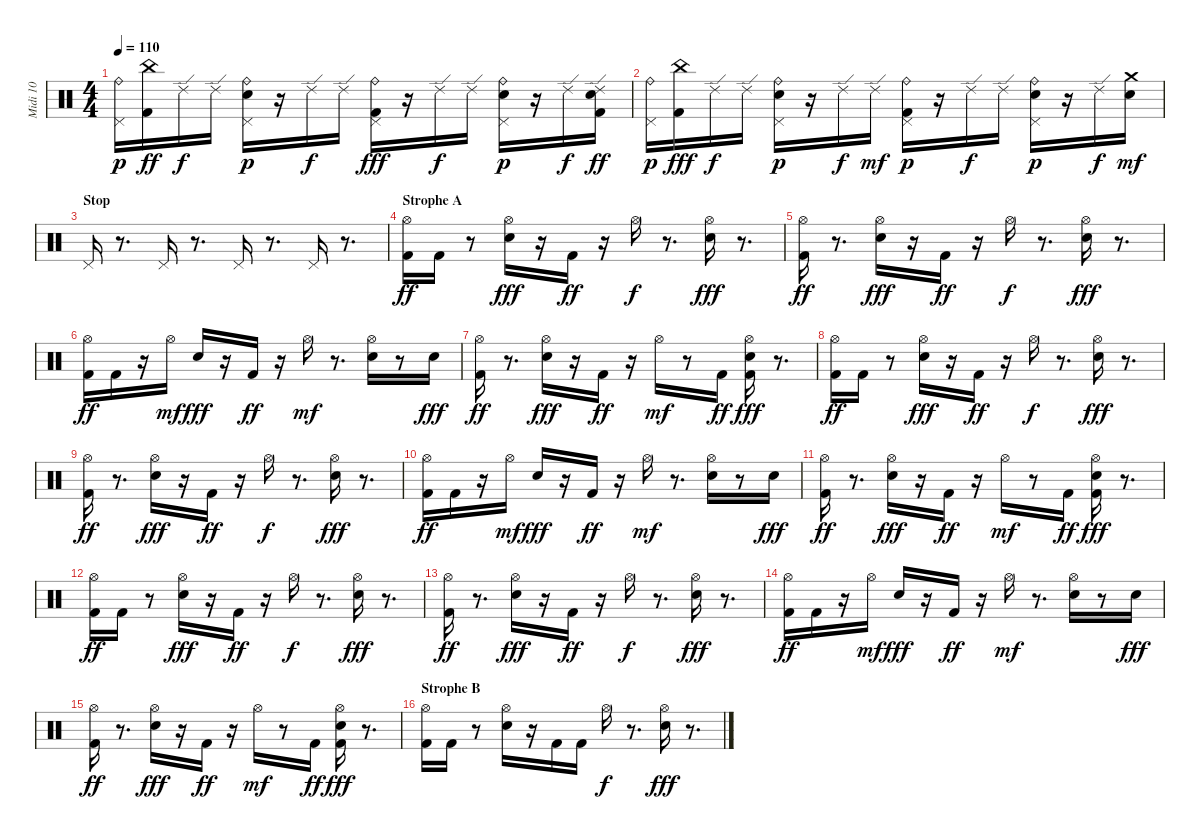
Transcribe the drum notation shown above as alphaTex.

\track ("Midi 10" "Midi 10") {instrument percussion}
\staff {score}
\articulation defaults
\ts (4 4)
\tempo 110
\clef neutral
\ks c
("Ride (bell)" "Pedal Hi-Hat (hit)").16{dy p} ("Kick (hit) 2" "China (hit)").16{dy ff} "Ride (edge) 2".16{dy f} "Ride (edge) 2".16 ("Ride (bell)" "Snare (hit) 2" "Pedal Hi-Hat (hit)").16{dy p} r.16 "Ride (edge) 2".16{dy f} "Ride (edge) 2".16 ("Ride (bell)" "Pedal Hi-Hat (hit)" "Kick (hit) 2").16{dy fff} r.16 "Ride (edge) 2".16{dy f} "Ride (edge) 2".16 ("Ride (bell)" "Snare (hit) 2" "Pedal Hi-Hat (hit)").16{dy p} r.16 "Ride (edge) 2".16{dy f} ("Ride (edge) 2" "Kick (hit) 2" "Snare (hit) 2").16{dy ff} |
("Ride (bell)" "Pedal Hi-Hat (hit)").16{dy p} ("China (hit)" "Kick (hit) 2").16{dy fff} "Ride (edge) 2".16{dy f} "Ride (edge) 2".16 ("Ride (bell)" "Snare (hit) 2" "Pedal Hi-Hat (hit)").16{dy p} r.16 "Ride (edge) 2".16{dy f} "Ride (edge) 2".16{dy mf} ("Ride (bell)" "Kick (hit) 2" "Pedal Hi-Hat (hit)").16{dy p} r.16 "Ride (edge) 2".16{dy f} "Ride (edge) 2".16 ("Ride (bell)" "Snare (hit) 2" "Pedal Hi-Hat (hit)").16{dy p} r.16 "Ride (edge) 2".16{dy f} ("Crash medium (hit)" "Snare (hit) 2").16{dy mf} |
\section ("" "Stop")
"Pedal Hi-Hat (hit)".16 r.8{d} "Pedal Hi-Hat (hit)".16 r.8{d} "Pedal Hi-Hat (hit)".16 r.8{d} "Pedal Hi-Hat (hit)".16 r.8{d} |
\section ("" "Strophe A")
("Kick (hit) 2" "Hi-Hat (open)").16{dy ff} "Kick (hit) 2".16 r.8 ("Snare (hit) 2" "Hi-Hat (open)").16{dy fff} r.16 "Kick (hit) 2".16{dy ff} r.16 "Hi-Hat (open)".16{dy f} r.8{d} ("Snare (hit) 2" "Hi-Hat (open)").16{dy fff} r.8{d} |
("Hi-Hat (open)" "Kick (hit) 2").16{dy ff} r.8{d} ("Snare (hit) 2" "Hi-Hat (open)").16{dy fff} r.16 "Kick (hit) 2".16{dy ff} r.16 "Hi-Hat (open)".16{dy f} r.8{d} ("Snare (hit) 2" "Hi-Hat (open)").16{dy fff} r.8{d} |
("Hi-Hat (open)" "Kick (hit) 2").16{dy ff} "Kick (hit) 2".16 r.16 "Hi-Hat (open)".16{dy mf} "Snare (hit) 2".16{dy fff} r.16 "Kick (hit) 2".16{dy ff} r.16 "Hi-Hat (open)".16{dy mf} r.8{d} ("Snare (hit) 2" "Hi-Hat (open)").16 r.8 "Snare (hit) 2".16{dy fff} |
("Hi-Hat (open)" "Kick (hit) 2").16{dy ff} r.8{d} ("Snare (hit) 2" "Hi-Hat (open)").16{dy fff} r.16 "Kick (hit) 2".16{dy ff} r.16 "Hi-Hat (open)".16{dy mf} r.8 "Kick (hit) 2".16{dy ff} ("Hi-Hat (open)" "Kick (hit) 2" "Snare (hit) 2").16{dy fff} r.8{d} |
("Kick (hit) 2" "Hi-Hat (open)").16{dy ff} "Kick (hit) 2".16 r.8 ("Snare (hit) 2" "Hi-Hat (open)").16{dy fff} r.16 "Kick (hit) 2".16{dy ff} r.16 "Hi-Hat (open)".16{dy f} r.8{d} ("Snare (hit) 2" "Hi-Hat (open)").16{dy fff} r.8{d} |
("Hi-Hat (open)" "Kick (hit) 2").16{dy ff} r.8{d} ("Snare (hit) 2" "Hi-Hat (open)").16{dy fff} r.16 "Kick (hit) 2".16{dy ff} r.16 "Hi-Hat (open)".16{dy f} r.8{d} ("Snare (hit) 2" "Hi-Hat (open)").16{dy fff} r.8{d} |
("Hi-Hat (open)" "Kick (hit) 2").16{dy ff} "Kick (hit) 2".16 r.16 "Hi-Hat (open)".16{dy mf} "Snare (hit) 2".16{dy fff} r.16 "Kick (hit) 2".16{dy ff} r.16 "Hi-Hat (open)".16{dy mf} r.8{d} ("Snare (hit) 2" "Hi-Hat (open)").16 r.8 "Snare (hit) 2".16{dy fff} |
("Hi-Hat (open)" "Kick (hit) 2").16{dy ff} r.8{d} ("Snare (hit) 2" "Hi-Hat (open)").16{dy fff} r.16 "Kick (hit) 2".16{dy ff} r.16 "Hi-Hat (open)".16{dy mf} r.8 "Kick (hit) 2".16{dy ff} ("Hi-Hat (open)" "Kick (hit) 2" "Snare (hit) 2").16{dy fff} r.8{d} |
("Kick (hit) 2" "Hi-Hat (open)").16{dy ff} "Kick (hit) 2".16 r.8 ("Snare (hit) 2" "Hi-Hat (open)").16{dy fff} r.16 "Kick (hit) 2".16{dy ff} r.16 "Hi-Hat (open)".16{dy f} r.8{d} ("Snare (hit) 2" "Hi-Hat (open)").16{dy fff} r.8{d} |
("Hi-Hat (open)" "Kick (hit) 2").16{dy ff} r.8{d} ("Snare (hit) 2" "Hi-Hat (open)").16{dy fff} r.16 "Kick (hit) 2".16{dy ff} r.16 "Hi-Hat (open)".16{dy f} r.8{d} ("Snare (hit) 2" "Hi-Hat (open)").16{dy fff} r.8{d} |
("Hi-Hat (open)" "Kick (hit) 2").16{dy ff} "Kick (hit) 2".16 r.16 "Hi-Hat (open)".16{dy mf} "Snare (hit) 2".16{dy fff} r.16 "Kick (hit) 2".16{dy ff} r.16 "Hi-Hat (open)".16{dy mf} r.8{d} ("Snare (hit) 2" "Hi-Hat (open)").16 r.8 "Snare (hit) 2".16{dy fff} |
("Hi-Hat (open)" "Kick (hit) 2").16{dy ff} r.8{d} ("Snare (hit) 2" "Hi-Hat (open)").16{dy fff} r.16 "Kick (hit) 2".16{dy ff} r.16 "Hi-Hat (open)".16{dy mf} r.8 "Kick (hit) 2".16{dy ff} ("Hi-Hat (open)" "Kick (hit) 2" "Snare (hit) 2").16{dy fff} r.8{d} |
\section ("" "Strophe B")
("Kick (hit) 2" "Hi-Hat (open)").16 "Kick (hit) 2".16 r.8 ("Snare (hit) 2" "Hi-Hat (open)").16 r.16 "Kick (hit) 2".16 "Kick (hit) 2".16 "Hi-Hat (open)".16{dy f} r.8{d} ("Snare (hit) 2" "Hi-Hat (open)").16{dy fff} r.8{d}
